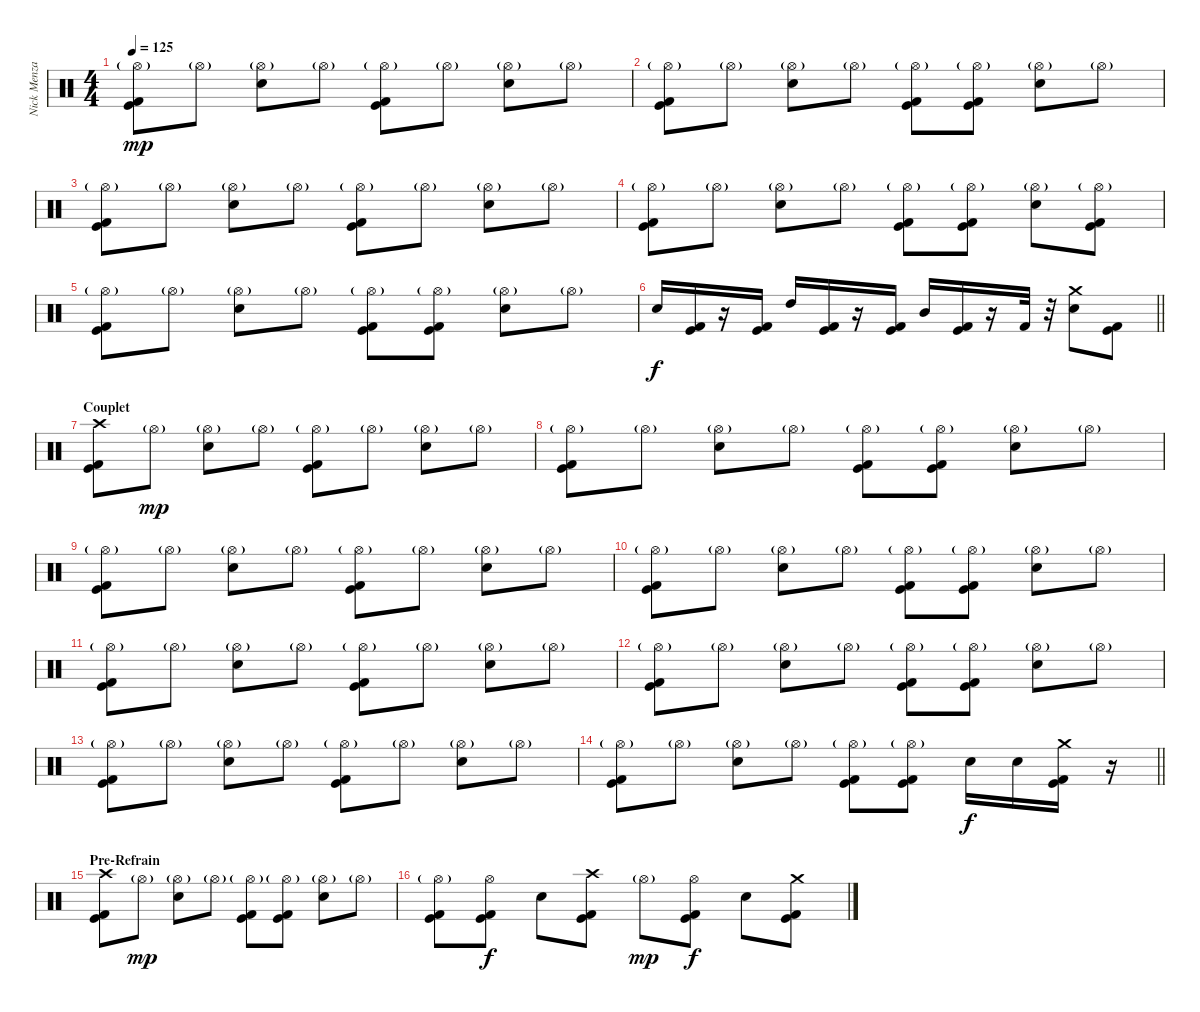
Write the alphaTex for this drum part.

\track ("Nick Menza" "Nick Menza") {instrument percussion}
\staff {score}
\articulation defaults
\ts (4 4)
\tempo 125
\clef neutral
\ks c
("Hi-Hat (open)"{g} "Kick (hit)" "Kick (hit) 2").8{dy mp} "Hi-Hat (open)"{g}.8 ("Hi-Hat (open)"{g} "Electric Snare (hit)").8 "Hi-Hat (open)"{g}.8 ("Hi-Hat (open)"{g} "Kick (hit)" "Kick (hit) 2").8 "Hi-Hat (open)"{g}.8 ("Hi-Hat (open)"{g} "Electric Snare (hit)").8 "Hi-Hat (open)"{g}.8 |
("Hi-Hat (open)"{g} "Kick (hit)" "Kick (hit) 2").8 "Hi-Hat (open)"{g}.8 ("Hi-Hat (open)"{g} "Electric Snare (hit)").8 "Hi-Hat (open)"{g}.8 ("Hi-Hat (open)"{g} "Kick (hit)" "Kick (hit) 2").8 ("Hi-Hat (open)"{g} "Kick (hit)" "Kick (hit) 2").8 ("Hi-Hat (open)"{g} "Electric Snare (hit)").8 "Hi-Hat (open)"{g}.8 |
("Hi-Hat (open)"{g} "Kick (hit)" "Kick (hit) 2").8 "Hi-Hat (open)"{g}.8 ("Hi-Hat (open)"{g} "Electric Snare (hit)").8 "Hi-Hat (open)"{g}.8 ("Hi-Hat (open)"{g} "Kick (hit)" "Kick (hit) 2").8 "Hi-Hat (open)"{g}.8 ("Hi-Hat (open)"{g} "Electric Snare (hit)").8 "Hi-Hat (open)"{g}.8 |
("Hi-Hat (open)"{g} "Kick (hit)" "Kick (hit) 2").8 "Hi-Hat (open)"{g}.8 ("Hi-Hat (open)"{g} "Electric Snare (hit)").8 "Hi-Hat (open)"{g}.8 ("Hi-Hat (open)"{g} "Kick (hit)" "Kick (hit) 2").8 ("Hi-Hat (open)"{g} "Kick (hit)" "Kick (hit) 2").8 ("Hi-Hat (open)"{g} "Electric Snare (hit)").8 ("Hi-Hat (open)"{g} "Kick (hit)" "Kick (hit) 2").8 |
("Hi-Hat (open)"{g} "Kick (hit)" "Kick (hit) 2").8 "Hi-Hat (open)"{g}.8 ("Hi-Hat (open)"{g} "Electric Snare (hit)").8 "Hi-Hat (open)"{g}.8 ("Hi-Hat (open)"{g} "Kick (hit)" "Kick (hit) 2").8 ("Hi-Hat (open)"{g} "Kick (hit)" "Kick (hit) 2").8 ("Hi-Hat (open)"{g} "Electric Snare (hit)").8 "Hi-Hat (open)"{g}.8 |
\barLineRight lightlight "Electric Snare (hit)".16{dy f}
("Kick (hit)" "Kick (hit) 2").16 r.16 ("Kick (hit)" "Kick (hit) 2").16 "High Tom (hit)".16 ("Kick (hit)" "Kick (hit) 2").16 r.16 ("Kick (hit)" "Kick (hit) 2").16 "Mid Tom (hit)".16 ("Kick (hit)" "Kick (hit) 2").16 r.16 "Kick (hit) 2".32 r.32 ("Crash medium (hit)" "Electric Snare (hit)").8 ("Kick (hit)" "Kick (hit) 2").8 |
\section ("" "Couplet")
("Crash high (hit)" "Kick (hit)" "Kick (hit) 2").8 "Hi-Hat (open)"{g}.8{dy mp} ("Hi-Hat (open)"{g} "Electric Snare (hit)").8 "Hi-Hat (open)"{g}.8 ("Hi-Hat (open)"{g} "Kick (hit)" "Kick (hit) 2").8 "Hi-Hat (open)"{g}.8 ("Hi-Hat (open)"{g} "Electric Snare (hit)").8 "Hi-Hat (open)"{g}.8 |
("Hi-Hat (open)"{g} "Kick (hit)" "Kick (hit) 2").8 "Hi-Hat (open)"{g}.8 ("Hi-Hat (open)"{g} "Electric Snare (hit)").8 "Hi-Hat (open)"{g}.8 ("Hi-Hat (open)"{g} "Kick (hit)" "Kick (hit) 2").8 ("Hi-Hat (open)"{g} "Kick (hit)" "Kick (hit) 2").8 ("Hi-Hat (open)"{g} "Electric Snare (hit)").8 "Hi-Hat (open)"{g}.8 |
("Hi-Hat (open)"{g} "Kick (hit)" "Kick (hit) 2").8 "Hi-Hat (open)"{g}.8 ("Hi-Hat (open)"{g} "Electric Snare (hit)").8 "Hi-Hat (open)"{g}.8 ("Hi-Hat (open)"{g} "Kick (hit)" "Kick (hit) 2").8 "Hi-Hat (open)"{g}.8 ("Hi-Hat (open)"{g} "Electric Snare (hit)").8 "Hi-Hat (open)"{g}.8 |
("Hi-Hat (open)"{g} "Kick (hit)" "Kick (hit) 2").8 "Hi-Hat (open)"{g}.8 ("Hi-Hat (open)"{g} "Electric Snare (hit)").8 "Hi-Hat (open)"{g}.8 ("Hi-Hat (open)"{g} "Kick (hit)" "Kick (hit) 2").8 ("Hi-Hat (open)"{g} "Kick (hit)" "Kick (hit) 2").8 ("Hi-Hat (open)"{g} "Electric Snare (hit)").8 "Hi-Hat (open)"{g}.8 |
("Hi-Hat (open)"{g} "Kick (hit)" "Kick (hit) 2").8 "Hi-Hat (open)"{g}.8 ("Hi-Hat (open)"{g} "Electric Snare (hit)").8 "Hi-Hat (open)"{g}.8 ("Hi-Hat (open)"{g} "Kick (hit)" "Kick (hit) 2").8 "Hi-Hat (open)"{g}.8 ("Hi-Hat (open)"{g} "Electric Snare (hit)").8 "Hi-Hat (open)"{g}.8 |
("Hi-Hat (open)"{g} "Kick (hit)" "Kick (hit) 2").8 "Hi-Hat (open)"{g}.8 ("Hi-Hat (open)"{g} "Electric Snare (hit)").8 "Hi-Hat (open)"{g}.8 ("Hi-Hat (open)"{g} "Kick (hit)" "Kick (hit) 2").8 ("Hi-Hat (open)"{g} "Kick (hit)" "Kick (hit) 2").8 ("Hi-Hat (open)"{g} "Electric Snare (hit)").8 "Hi-Hat (open)"{g}.8 |
("Hi-Hat (open)"{g} "Kick (hit)" "Kick (hit) 2").8 "Hi-Hat (open)"{g}.8 ("Hi-Hat (open)"{g} "Electric Snare (hit)").8 "Hi-Hat (open)"{g}.8 ("Hi-Hat (open)"{g} "Kick (hit)" "Kick (hit) 2").8 "Hi-Hat (open)"{g}.8 ("Hi-Hat (open)"{g} "Electric Snare (hit)").8 "Hi-Hat (open)"{g}.8 |
\barLineRight lightlight
("Hi-Hat (open)"{g} "Kick (hit)" "Kick (hit) 2").8 "Hi-Hat (open)"{g}.8 ("Hi-Hat (open)"{g} "Electric Snare (hit)").8 "Hi-Hat (open)"{g}.8 ("Hi-Hat (open)"{g} "Kick (hit)" "Kick (hit) 2").8 ("Hi-Hat (open)"{g} "Kick (hit)" "Kick (hit) 2").8 "Electric Snare (hit)".16{dy f} "Electric Snare (hit)".16 ("Crash medium (hit)" "Kick (hit)" "Kick (hit) 2").16 r.16 |
\section ("" "Pre-Refrain")
("Crash high (hit)" "Kick (hit)" "Kick (hit) 2").8 "Hi-Hat (open)"{g}.8{dy mp} ("Hi-Hat (open)"{g} "Electric Snare (hit)").8 "Hi-Hat (open)"{g}.8 ("Hi-Hat (open)"{g} "Kick (hit)" "Kick (hit) 2").8 ("Hi-Hat (open)"{g} "Kick (hit)" "Kick (hit) 2").8 ("Hi-Hat (open)"{g} "Electric Snare (hit)").8 "Hi-Hat (open)"{g}.8 |
("Hi-Hat (open)"{g} "Kick (hit)" "Kick (hit) 2").8 ("Hi-Hat (open)" "Kick (hit)" "Kick (hit) 2").8{dy f} "Electric Snare (hit)".8 ("Crash high (hit)" "Kick (hit)" "Kick (hit) 2").8 "Hi-Hat (open)"{g}.8{dy mp} ("Hi-Hat (open)" "Kick (hit)" "Kick (hit) 2").8{dy f} "Electric Snare (hit)".8 ("Crash medium (hit)" "Kick (hit)" "Kick (hit) 2").8
